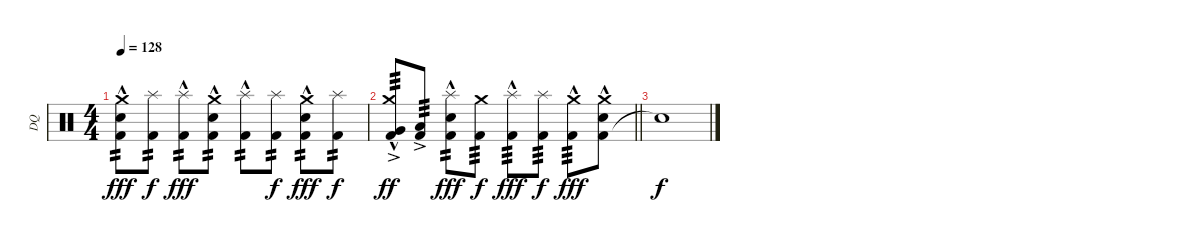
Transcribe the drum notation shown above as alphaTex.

\track ("DQ" "DQ") {instrument percussion}
\staff {score}
\articulation defaults
\ts (4 4)
\tempo 128
\clef neutral
\ks c
("Kick (hit) 2"{hac} "Snare (hit) 2"{hac} "Crash medium (hit)").8{tp 2 dy fff} ("Kick (hit) 2" "Splash (hit)").8{tp 2 dy f} ("Kick (hit) 2"{hac} "Splash (hit)").8{tp 2 dy fff} ("Kick (hit) 2" "Snare (hit) 2"{hac} "Crash medium (hit)").8{tp 2} ("Kick (hit) 2"{hac} "Splash (hit)").8{tp 2} ("Kick (hit) 2" "Splash (hit)").8{tp 2 dy f} ("Kick (hit) 2"{hac} "Snare (hit) 2"{hac} "Crash medium (hit)").8{tp 2 dy fff} ("Kick (hit) 2" "Splash (hit)").8{tp 2 dy f} |
\barLineRight lightlight
("Kick (hit) 2"{hac} "Very Low Tom (hit)"{ac} "Crash medium (hit)").8{tp 3 dy ff} ("Kick (hit) 2" "Low Floor Tom (hit)"{ac}).8{tp 3} ("Kick (hit) 2"{hac} "Snare (hit) 2"{hac} "Splash (hit)").8{tp 2 dy fff} ("Kick (hit) 2" "Crash medium (hit)").8{tp 3 dy f} ("Kick (hit) 2"{hac} "Splash (hit)").8{tp 3 dy fff} ("Kick (hit) 2" "Splash (hit)").8{tp 3 dy f} ("Kick (hit) 2"{hac} "Crash medium (hit)").8{tp 3 dy fff} ("Kick (hit) 2" "Snare (hit) 2"{hac} "Crash medium (hit)").8 |
"Snare (hit)"{t}.1{dy f}
